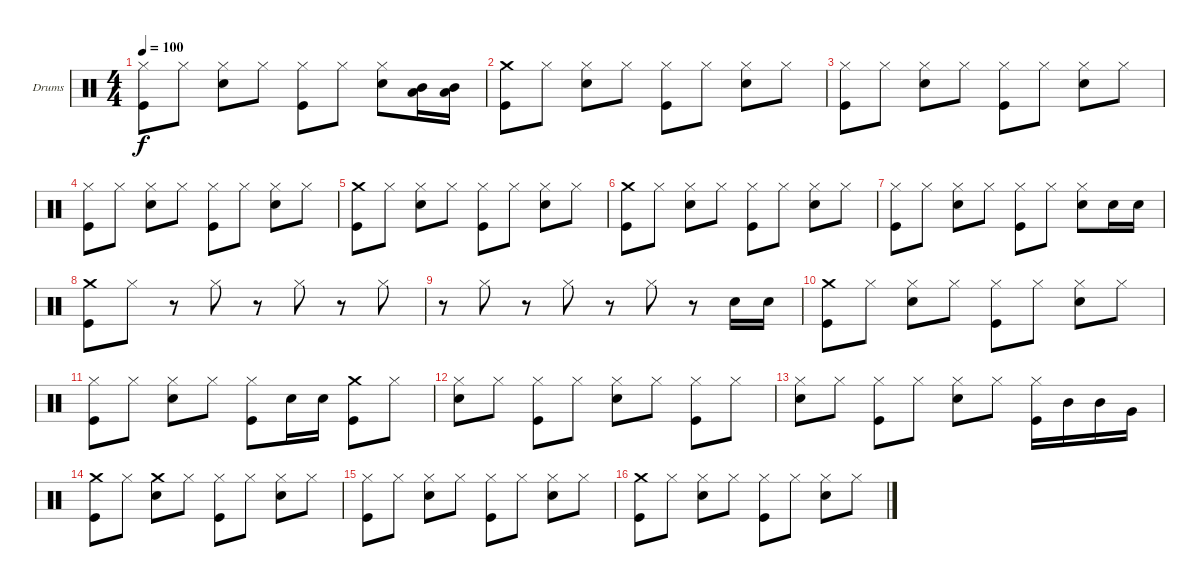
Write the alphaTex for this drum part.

\bracketExtendMode groupsimilarinstruments
\firstSystemTrackNameOrientation horizontal
\otherSystemsTrackNameOrientation horizontal
\track ("Drumkit" "Drums") {instrument percussion}
\staff {score}
\articulation defaults
\ts (4 4)
\tempo 100
\clef neutral
\ks c
("Kick (hit)" "Hi-Hat (closed)").8{dy f} "Hi-Hat (closed)".8 ("Snare (hit) 2" "Hi-Hat (closed)").8 "Hi-Hat (closed)".8 ("Hi-Hat (closed)" "Kick (hit)").8 "Hi-Hat (closed)".8 ("Snare (hit) 2" "Hi-Hat (closed)").8 ("Mid Tom (hit)" "Low Tom (hit)").16 ("Mid Tom (hit)" "Low Tom (hit)").16 |
("Kick (hit)" "Crash medium (hit)").8 "Hi-Hat (closed)".8 ("Snare (hit) 2" "Hi-Hat (closed)").8 "Hi-Hat (closed)".8 ("Hi-Hat (closed)" "Kick (hit)").8 "Hi-Hat (closed)".8 ("Snare (hit) 2" "Hi-Hat (closed)").8 "Hi-Hat (closed)".8 |
("Kick (hit)" "Hi-Hat (closed)").8 "Hi-Hat (closed)".8 ("Snare (hit) 2" "Hi-Hat (closed)").8 "Hi-Hat (closed)".8 ("Hi-Hat (closed)" "Kick (hit)").8 "Hi-Hat (closed)".8 ("Snare (hit) 2" "Hi-Hat (closed)").8 "Hi-Hat (closed)".8 |
("Kick (hit)" "Hi-Hat (closed)").8 "Hi-Hat (closed)".8 ("Snare (hit) 2" "Hi-Hat (closed)").8 "Hi-Hat (closed)".8 ("Hi-Hat (closed)" "Kick (hit)").8 "Hi-Hat (closed)".8 ("Snare (hit) 2" "Hi-Hat (closed)").8 "Hi-Hat (closed)".8 |
("Kick (hit)" "Crash medium (hit)").8 "Hi-Hat (closed)".8 ("Snare (hit) 2" "Hi-Hat (closed)").8 "Hi-Hat (closed)".8 ("Kick (hit)" "Hi-Hat (closed)").8 "Hi-Hat (closed)".8 ("Snare (hit) 2" "Hi-Hat (closed)").8 "Hi-Hat (closed)".8 |
("Kick (hit)" "Crash medium (hit)").8 "Hi-Hat (closed)".8 ("Snare (hit) 2" "Hi-Hat (closed)").8 "Hi-Hat (closed)".8 ("Kick (hit)" "Hi-Hat (closed)").8 "Hi-Hat (closed)".8 ("Snare (hit) 2" "Hi-Hat (closed)").8 "Hi-Hat (closed)".8 |
("Kick (hit)" "Hi-Hat (closed)").8 "Hi-Hat (closed)".8 ("Snare (hit) 2" "Hi-Hat (closed)").8 "Hi-Hat (closed)".8 ("Kick (hit)" "Hi-Hat (closed)").8 "Hi-Hat (closed)".8 ("Snare (hit) 2" "Hi-Hat (closed)").8 "Snare (hit) 2".16 "Snare (hit) 2".16 |
("Kick (hit)" "Crash medium (hit)").8 "Hi-Hat (closed)".8 r.8 "Hi-Hat (closed)".8 r.8 "Hi-Hat (closed)".8 r.8 "Hi-Hat (closed)".8 |
r.8 "Hi-Hat (closed)".8 r.8 "Hi-Hat (closed)".8 r.8 "Hi-Hat (closed)".8 r.8 "Snare (hit) 2".16 "Snare (hit) 2".16 |
("Kick (hit)" "Crash medium (hit)").8 "Hi-Hat (closed)".8 ("Snare (hit) 2" "Hi-Hat (closed)").8 "Hi-Hat (closed)".8 ("Kick (hit)" "Hi-Hat (closed)").8 "Hi-Hat (closed)".8 ("Snare (hit) 2" "Hi-Hat (closed)").8 "Hi-Hat (closed)".8 |
("Kick (hit)" "Hi-Hat (closed)").8 "Hi-Hat (closed)".8 ("Snare (hit) 2" "Hi-Hat (closed)").8 "Hi-Hat (closed)".8 ("Kick (hit)" "Hi-Hat (closed)").8 "Snare (hit) 2".16 "Snare (hit) 2".16 ("Kick (hit)" "Crash medium (hit)").8 "Hi-Hat (closed)".8 |
("Snare (hit) 2" "Hi-Hat (closed)").8 "Hi-Hat (closed)".8 ("Kick (hit)" "Hi-Hat (closed)").8 "Hi-Hat (closed)".8 ("Snare (hit) 2" "Hi-Hat (closed)").8 "Hi-Hat (closed)".8 ("Kick (hit)" "Hi-Hat (closed)").8 "Hi-Hat (closed)".8 |
("Snare (hit) 2" "Hi-Hat (closed)").8 "Hi-Hat (closed)".8 ("Kick (hit)" "Hi-Hat (closed)").8 "Hi-Hat (closed)".8 ("Snare (hit) 2" "Hi-Hat (closed)").8 "Hi-Hat (closed)".8 ("Kick (hit)" "Hi-Hat (closed)").16 "Mid Tom (hit)".16 "Mid Tom (hit)".16 "Very Low Tom (hit)".16 |
("Kick (hit)" "Crash medium (hit)").8 "Hi-Hat (closed)".8 ("Snare (hit) 2" "Crash medium (hit)").8 "Hi-Hat (closed)".8 ("Kick (hit)" "Hi-Hat (closed)").8 "Hi-Hat (closed)".8 ("Snare (hit) 2" "Hi-Hat (closed)").8 "Hi-Hat (closed)".8 |
("Kick (hit)" "Hi-Hat (closed)").8 "Hi-Hat (closed)".8 ("Snare (hit) 2" "Hi-Hat (closed)").8 "Hi-Hat (closed)".8 ("Kick (hit)" "Hi-Hat (closed)").8 "Hi-Hat (closed)".8 ("Snare (hit) 2" "Hi-Hat (closed)").8 "Hi-Hat (closed)".8 |
("Kick (hit)" "Crash medium (hit)").8 "Hi-Hat (closed)".8 ("Snare (hit) 2" "Hi-Hat (closed)").8 "Hi-Hat (closed)".8 ("Kick (hit)" "Hi-Hat (closed)").8 "Hi-Hat (closed)".8 ("Snare (hit) 2" "Hi-Hat (closed)").8 "Hi-Hat (closed)".8
